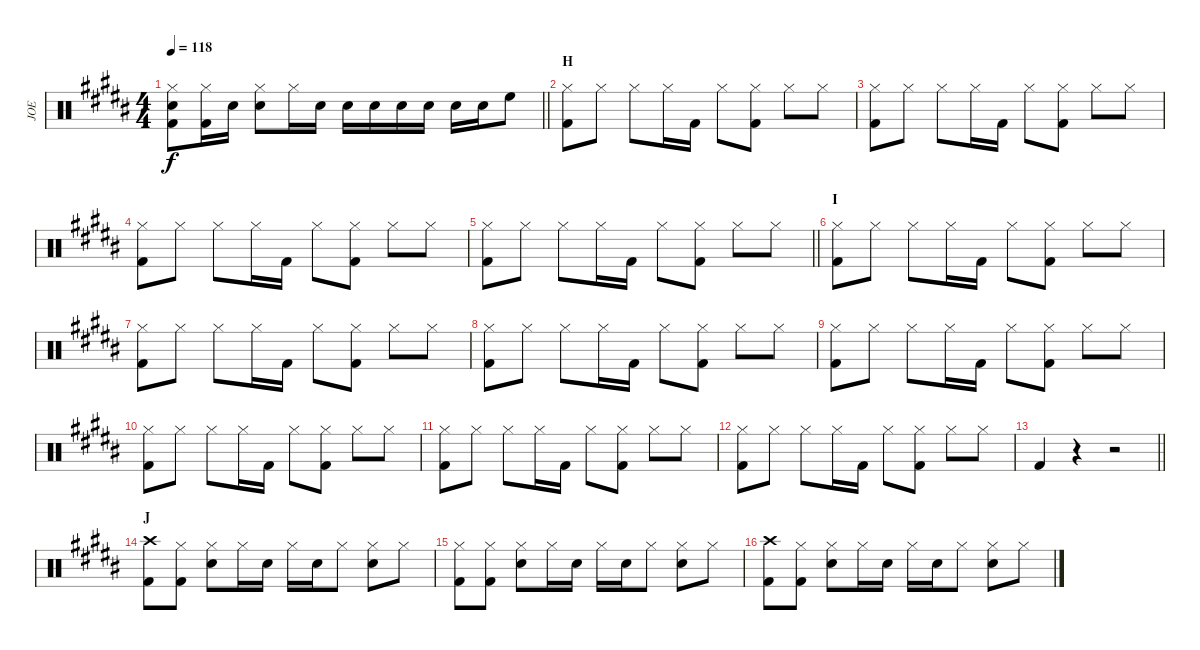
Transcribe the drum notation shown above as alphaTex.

\track ("JOE" "JOE") {instrument percussion}
\staff {score}
\articulation defaults
\ts (4 4)
\tempo 118
\clef neutral
\barLineRight lightlight
\ks b
("Hi-Hat (closed)" "Snare (hit) 2" "Kick (hit) 2").8{dy f} ("Hi-Hat (closed)" "Kick (hit) 2").16 "Snare (hit) 2".16 ("Hi-Hat (closed)" "Snare (hit) 2").8 "Hi-Hat (closed)".16 "Snare (hit) 2".16 "Snare (hit) 2".16 "Snare (hit) 2".16 "Snare (hit) 2".16 "Snare (hit) 2".16 "Snare (hit) 2".16 "Snare (hit) 2".16 "High Floor Tom (hit)".8 |
\section ("" "H")
("Hi-Hat (closed)" "Kick (hit) 2").8 "Hi-Hat (closed)".8 "Hi-Hat (closed)".8 "Hi-Hat (closed)".16 "Kick (hit) 2".16 "Hi-Hat (closed)".8 ("Hi-Hat (closed)" "Kick (hit) 2").8 "Hi-Hat (closed)".8 "Hi-Hat (closed)".8 |
("Hi-Hat (closed)" "Kick (hit) 2").8 "Hi-Hat (closed)".8 "Hi-Hat (closed)".8 "Hi-Hat (closed)".16 "Kick (hit) 2".16 "Hi-Hat (closed)".8 ("Hi-Hat (closed)" "Kick (hit) 2").8 "Hi-Hat (closed)".8 "Hi-Hat (closed)".8 |
("Hi-Hat (closed)" "Kick (hit) 2").8 "Hi-Hat (closed)".8 "Hi-Hat (closed)".8 "Hi-Hat (closed)".16 "Kick (hit) 2".16 "Hi-Hat (closed)".8 ("Hi-Hat (closed)" "Kick (hit) 2").8 "Hi-Hat (closed)".8 "Hi-Hat (closed)".8 |
\barLineRight lightlight
("Hi-Hat (closed)" "Kick (hit) 2").8 "Hi-Hat (closed)".8 "Hi-Hat (closed)".8 "Hi-Hat (closed)".16 "Kick (hit) 2".16 "Hi-Hat (closed)".8 ("Hi-Hat (closed)" "Kick (hit) 2").8 "Hi-Hat (closed)".8 "Hi-Hat (closed)".8 |
\section ("" "I")
("Hi-Hat (closed)" "Kick (hit) 2").8 "Hi-Hat (closed)".8 "Hi-Hat (closed)".8 "Hi-Hat (closed)".16 "Kick (hit) 2".16 "Hi-Hat (closed)".8 ("Hi-Hat (closed)" "Kick (hit) 2").8 "Hi-Hat (closed)".8 "Hi-Hat (closed)".8 |
("Hi-Hat (closed)" "Kick (hit) 2").8 "Hi-Hat (closed)".8 "Hi-Hat (closed)".8 "Hi-Hat (closed)".16 "Kick (hit) 2".16 "Hi-Hat (closed)".8 ("Hi-Hat (closed)" "Kick (hit) 2").8 "Hi-Hat (closed)".8 "Hi-Hat (closed)".8 |
("Hi-Hat (closed)" "Kick (hit) 2").8 "Hi-Hat (closed)".8 "Hi-Hat (closed)".8 "Hi-Hat (closed)".16 "Kick (hit) 2".16 "Hi-Hat (closed)".8 ("Hi-Hat (closed)" "Kick (hit) 2").8 "Hi-Hat (closed)".8 "Hi-Hat (closed)".8 |
("Hi-Hat (closed)" "Kick (hit) 2").8 "Hi-Hat (closed)".8 "Hi-Hat (closed)".8 "Hi-Hat (closed)".16 "Kick (hit) 2".16 "Hi-Hat (closed)".8 ("Hi-Hat (closed)" "Kick (hit) 2").8 "Hi-Hat (closed)".8 "Hi-Hat (closed)".8 |
("Hi-Hat (closed)" "Kick (hit) 2").8 "Hi-Hat (closed)".8 "Hi-Hat (closed)".8 "Hi-Hat (closed)".16 "Kick (hit) 2".16 "Hi-Hat (closed)".8 ("Hi-Hat (closed)" "Kick (hit) 2").8 "Hi-Hat (closed)".8 "Hi-Hat (closed)".8 |
("Hi-Hat (closed)" "Kick (hit) 2").8 "Hi-Hat (closed)".8 "Hi-Hat (closed)".8 "Hi-Hat (closed)".16 "Kick (hit) 2".16 "Hi-Hat (closed)".8 ("Hi-Hat (closed)" "Kick (hit) 2").8 "Hi-Hat (closed)".8 "Hi-Hat (closed)".8 |
("Hi-Hat (closed)" "Kick (hit) 2").8 "Hi-Hat (closed)".8 "Hi-Hat (closed)".8 "Hi-Hat (closed)".16 "Kick (hit) 2".16 "Hi-Hat (closed)".8 ("Hi-Hat (closed)" "Kick (hit) 2").8 "Hi-Hat (closed)".8 "Hi-Hat (closed)".8 |
\barLineRight lightlight "Kick (hit) 2".4
r.4 r.2 |
\section ("" "J")
("Crash high (hit)" "Kick (hit) 2").8 ("Hi-Hat (closed)" "Kick (hit) 2").8 ("Hi-Hat (closed)" "Snare (hit) 2").8 "Hi-Hat (closed)".16 "Snare (hit) 2".16 "Hi-Hat (closed)".16 "Snare (hit) 2".16 "Hi-Hat (closed)".8 ("Hi-Hat (closed)" "Snare (hit) 2").8 "Hi-Hat (closed)".8 |
("Hi-Hat (closed)" "Kick (hit) 2").8 ("Hi-Hat (closed)" "Kick (hit) 2").8 ("Hi-Hat (closed)" "Snare (hit) 2").8 "Hi-Hat (closed)".16 "Snare (hit) 2".16 "Hi-Hat (closed)".16 "Snare (hit) 2".16 "Hi-Hat (closed)".8 ("Hi-Hat (closed)" "Snare (hit) 2").8 "Hi-Hat (closed)".8 |
("Crash high (hit)" "Kick (hit) 2").8 ("Hi-Hat (closed)" "Kick (hit) 2").8 ("Hi-Hat (closed)" "Snare (hit) 2").8 "Hi-Hat (closed)".16 "Snare (hit) 2".16 "Hi-Hat (closed)".16 "Snare (hit) 2".16 "Hi-Hat (closed)".8 ("Hi-Hat (closed)" "Snare (hit) 2").8 "Hi-Hat (closed)".8
